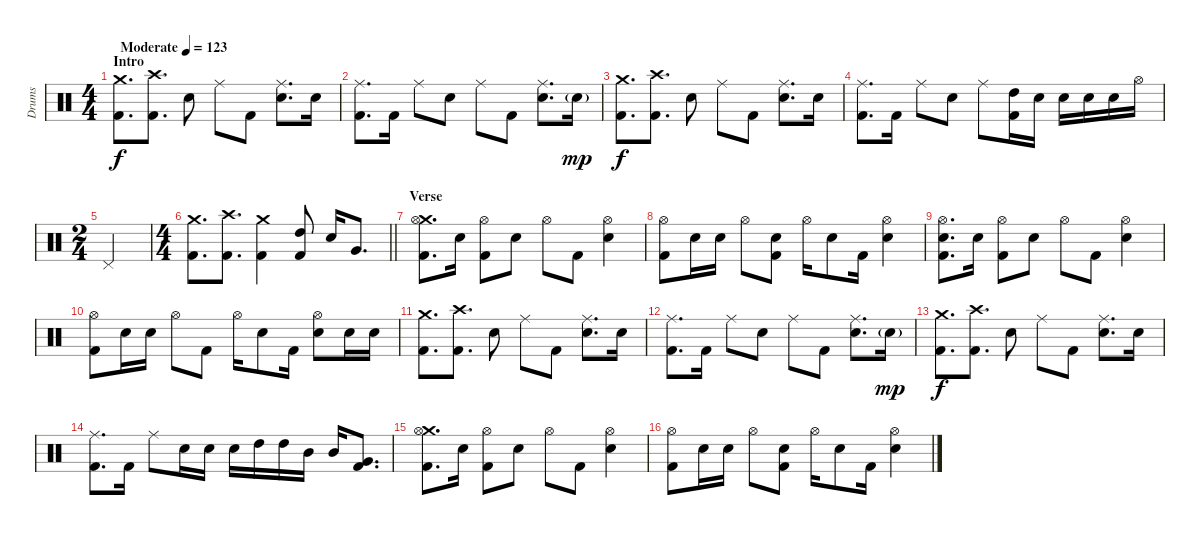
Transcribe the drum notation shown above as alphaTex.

\track ("Drums" "Drums") {instrument percussion}
\staff {score}
\articulation defaults
\ts (4 4)
\section ("" "Intro")
\tempo (123 "Moderate")
\clef neutral
\ks c
("Crash medium (hit)" "Kick (hit) 2").8{d dy f} ("Crash high (hit)" "Kick (hit) 2").8{d} "Electric Snare (hit)".8 "Ride (middle)".8 "Kick (hit) 2".8 ("Ride (middle)" "Electric Snare (hit)").8{d} "Electric Snare (hit)".16 |
("Ride (middle)" "Kick (hit) 2").8{d} "Kick (hit) 2".16 "Ride (middle)".8 "Electric Snare (hit)".8 "Ride (middle)".8 "Kick (hit) 2".8 ("Ride (middle)" "Electric Snare (hit)").8{d} "Electric Snare (hit)"{g}.16{dy mp} |
("Crash medium (hit)" "Kick (hit) 2").8{d dy f} ("Crash high (hit)" "Kick (hit) 2").8{d} "Electric Snare (hit)".8 "Ride (middle)".8 "Kick (hit) 2".8 ("Ride (middle)" "Electric Snare (hit)").8{d} "Electric Snare (hit)".16 |
("Ride (middle)" "Kick (hit) 2").8{d} "Kick (hit) 2".16 "Ride (middle)".8 "Electric Snare (hit)".8 "Ride (middle)".8 ("High Tom (hit)" "Kick (hit) 2").16 "Electric Snare (hit)".16 "Electric Snare (hit)".16 "Electric Snare (hit)".16 "Electric Snare (hit)".16 "Hi-Hat (open)".16 |
\ts (2 4)
"Pedal Hi-Hat (hit)".2 |
\ts (4 4)
\barLineRight lightlight
("Crash medium (hit)" "Kick (hit) 2").8{d} ("Crash high (hit)" "Kick (hit) 2").8{d} ("Crash medium (hit)" "Kick (hit) 2").4 ("High Tom (hit)" "Kick (hit) 2").8 "Electric Snare (hit)".16 "Very Low Tom (hit)".8{d} |
\section ("" "Verse")
("Crash medium (hit)" "Hi-Hat (open)" "Kick (hit) 2").8{d} "Electric Snare (hit)".16 ("Hi-Hat (open)" "Kick (hit) 2").8 "Electric Snare (hit)".8 "Hi-Hat (open)".8 "Kick (hit) 2".8 ("Hi-Hat (open)" "Electric Snare (hit)").4 |
("Hi-Hat (open)" "Kick (hit) 2").8 "Electric Snare (hit)".16 "Electric Snare (hit)".16 "Hi-Hat (open)".8 ("Electric Snare (hit)" "Kick (hit) 2").8 "Hi-Hat (open)".16 "Electric Snare (hit)".8 "Kick (hit) 2".16 ("Hi-Hat (open)" "Electric Snare (hit)").4 |
("Hi-Hat (open)" "Electric Snare (hit)" "Kick (hit) 2").8{d} "Electric Snare (hit)".16 ("Hi-Hat (open)" "Kick (hit) 2").8 "Electric Snare (hit)".8 "Hi-Hat (open)".8 "Kick (hit) 2".8 ("Hi-Hat (open)" "Electric Snare (hit)").4 |
("Hi-Hat (open)" "Kick (hit) 2").8 "Electric Snare (hit)".16 "Electric Snare (hit)".16 "Hi-Hat (open)".8 "Kick (hit) 2".8 "Hi-Hat (open)".16 "Electric Snare (hit)".8 "Kick (hit) 2".16 ("Hi-Hat (open)" "Electric Snare (hit)").8 "Electric Snare (hit)".16 "Electric Snare (hit)".16 |
("Crash medium (hit)" "Kick (hit) 2").8{d} ("Crash high (hit)" "Kick (hit) 2").8{d} "Electric Snare (hit)".8 "Ride (middle)".8 "Kick (hit) 2".8 ("Ride (middle)" "Electric Snare (hit)").8{d} "Electric Snare (hit)".16 |
("Ride (middle)" "Kick (hit) 2").8{d} "Kick (hit) 2".16 "Ride (middle)".8 "Electric Snare (hit)".8 "Ride (middle)".8 "Kick (hit) 2".8 ("Ride (middle)" "Electric Snare (hit)").8{d} "Electric Snare (hit)"{g}.16{dy mp} |
("Crash medium (hit)" "Kick (hit) 2").8{d dy f} ("Crash high (hit)" "Kick (hit) 2").8{d} "Electric Snare (hit)".8 "Ride (middle)".8 "Kick (hit) 2".8 ("Ride (middle)" "Electric Snare (hit)").8{d} "Electric Snare (hit)".16 |
("Ride (middle)" "Kick (hit) 2").8{d} "Kick (hit) 2".16 "Ride (middle)".8 "Electric Snare (hit)".16 "Electric Snare (hit)".16 "Electric Snare (hit)".16 "High Tom (hit)".16 "High Tom (hit)".16 "Mid Tom (hit)".16 "Mid Tom (hit)".16 ("Very Low Tom (hit)" "Kick (hit) 2").8{d} |
("Crash medium (hit)" "Hi-Hat (open)" "Kick (hit) 2").8{d} "Electric Snare (hit)".16 ("Hi-Hat (open)" "Kick (hit) 2").8 "Electric Snare (hit)".8 "Hi-Hat (open)".8 "Kick (hit) 2".8 ("Hi-Hat (open)" "Electric Snare (hit)").4 |
("Hi-Hat (open)" "Kick (hit) 2").8 "Electric Snare (hit)".16 "Electric Snare (hit)".16 "Hi-Hat (open)".8 ("Electric Snare (hit)" "Kick (hit) 2").8 "Hi-Hat (open)".16 "Electric Snare (hit)".8 "Kick (hit) 2".16 ("Hi-Hat (open)" "Electric Snare (hit)").4
